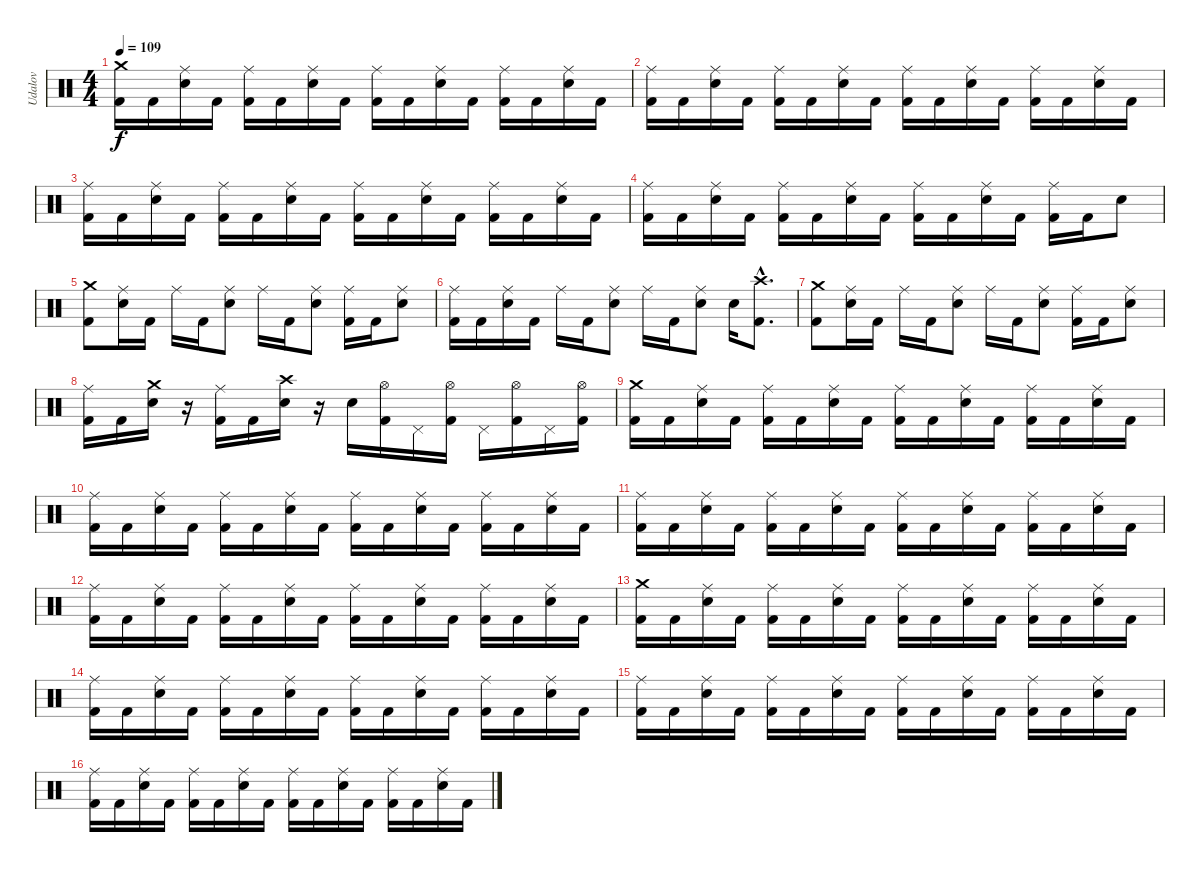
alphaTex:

\track ("Udalov" "Udalov") {instrument percussion}
\staff {score}
\articulation defaults
\ts (4 4)
\tempo 109
\clef neutral
\ks c
("Kick (hit) 2" "Crash medium (hit)").16{dy f} "Kick (hit) 2".16 ("Ride (middle)" "Snare (hit) 2").16 "Kick (hit) 2".16 ("Ride (middle)" "Kick (hit) 2").16 "Kick (hit) 2".16 ("Ride (middle)" "Snare (hit) 2").16 "Kick (hit) 2".16 ("Ride (middle)" "Kick (hit) 2").16 "Kick (hit) 2".16 ("Ride (middle)" "Snare (hit) 2").16 "Kick (hit) 2".16 ("Ride (middle)" "Kick (hit) 2").16 "Kick (hit) 2".16 ("Ride (middle)" "Snare (hit) 2").16 "Kick (hit) 2".16 |
("Kick (hit) 2" "Ride (middle)").16 "Kick (hit) 2".16 ("Snare (hit) 2" "Ride (middle)").16 "Kick (hit) 2".16 ("Kick (hit) 2" "Ride (middle)").16 "Kick (hit) 2".16 ("Snare (hit) 2" "Ride (middle)").16 "Kick (hit) 2".16 ("Kick (hit) 2" "Ride (middle)").16 "Kick (hit) 2".16 ("Snare (hit) 2" "Ride (middle)").16 "Kick (hit) 2".16 ("Kick (hit) 2" "Ride (middle)").16 "Kick (hit) 2".16 ("Snare (hit) 2" "Ride (middle)").16 "Kick (hit) 2".16 |
("Kick (hit) 2" "Ride (middle)").16 "Kick (hit) 2".16 ("Ride (middle)" "Snare (hit) 2").16 "Kick (hit) 2".16 ("Ride (middle)" "Kick (hit) 2").16 "Kick (hit) 2".16 ("Ride (middle)" "Snare (hit) 2").16 "Kick (hit) 2".16 ("Ride (middle)" "Kick (hit) 2").16 "Kick (hit) 2".16 ("Ride (middle)" "Snare (hit) 2").16 "Kick (hit) 2".16 ("Ride (middle)" "Kick (hit) 2").16 "Kick (hit) 2".16 ("Ride (middle)" "Snare (hit) 2").16 "Kick (hit) 2".16 |
("Kick (hit) 2" "Ride (middle)").16 "Kick (hit) 2".16 ("Snare (hit) 2" "Ride (middle)").16 "Kick (hit) 2".16 ("Kick (hit) 2" "Ride (middle)").16 "Kick (hit) 2".16 ("Snare (hit) 2" "Ride (middle)").16 "Kick (hit) 2".16 ("Kick (hit) 2" "Ride (middle)").16 "Kick (hit) 2".16 ("Snare (hit) 2" "Ride (middle)").16 "Kick (hit) 2".16 ("Ride (middle)" "Kick (hit) 2").16 "Kick (hit) 2".16 "Snare (hit) 2".8 |
("Kick (hit) 2" "Crash medium (hit)").8 ("Ride (middle)" "Snare (hit) 2").16 "Kick (hit) 2".16 "Ride (middle)".16 "Kick (hit) 2".16 ("Ride (middle)" "Snare (hit) 2").8 "Ride (middle)".16 "Kick (hit) 2".16 ("Ride (middle)" "Snare (hit) 2").8 ("Ride (middle)" "Kick (hit) 2").16 "Kick (hit) 2".16 ("Ride (middle)" "Snare (hit) 2").8 |
("Kick (hit) 2" "Ride (middle)").16 "Kick (hit) 2".16 ("Ride (middle)" "Snare (hit) 2").16 "Kick (hit) 2".16 "Ride (middle)".16 "Kick (hit) 2".16 ("Ride (middle)" "Snare (hit) 2").8 "Ride (middle)".16 "Kick (hit) 2".16 ("Ride (middle)" "Snare (hit) 2").8 "Snare (hit) 2".16 ("Kick (hit) 2"{hac} "Crash high (hit)"{hac}).8{d} |
("Kick (hit) 2" "Crash medium (hit)").8 ("Ride (middle)" "Snare (hit) 2").16 "Kick (hit) 2".16 "Ride (middle)".16 "Kick (hit) 2".16 ("Ride (middle)" "Snare (hit) 2").8 "Ride (middle)".16 "Kick (hit) 2".16 ("Ride (middle)" "Snare (hit) 2").8 ("Ride (middle)" "Kick (hit) 2").16 "Kick (hit) 2".16 ("Ride (middle)" "Snare (hit) 2").8 |
("Ride (middle)" "Kick (hit) 2").16 "Kick (hit) 2".16 ("Crash medium (hit)" "Snare (hit) 2").16 r.16 ("Ride (middle)" "Kick (hit) 2").16 "Kick (hit) 2".16 ("Crash high (hit)" "Snare (hit) 2").16 r.16 "Snare (hit) 2".16 ("Hi-Hat (open)" "Kick (hit) 2").16 "Pedal Hi-Hat (hit)".16 ("Hi-Hat (open)" "Kick (hit) 2").16 "Pedal Hi-Hat (hit)".16 ("Hi-Hat (open)" "Kick (hit) 2").16 "Pedal Hi-Hat (hit)".16 ("Hi-Hat (open)" "Kick (hit) 2").16 |
("Kick (hit) 2" "Crash medium (hit)").16 "Kick (hit) 2".16 ("Ride (middle)" "Snare (hit) 2").16 "Kick (hit) 2".16 ("Ride (middle)" "Kick (hit) 2").16 "Kick (hit) 2".16 ("Ride (middle)" "Snare (hit) 2").16 "Kick (hit) 2".16 ("Ride (middle)" "Kick (hit) 2").16 "Kick (hit) 2".16 ("Ride (middle)" "Snare (hit) 2").16 "Kick (hit) 2".16 ("Ride (middle)" "Kick (hit) 2").16 "Kick (hit) 2".16 ("Ride (middle)" "Snare (hit) 2").16 "Kick (hit) 2".16 |
("Ride (middle)" "Kick (hit) 2").16 "Kick (hit) 2".16 ("Ride (middle)" "Snare (hit) 2").16 "Kick (hit) 2".16 ("Ride (middle)" "Kick (hit) 2").16 "Kick (hit) 2".16 ("Ride (middle)" "Snare (hit) 2").16 "Kick (hit) 2".16 ("Ride (middle)" "Kick (hit) 2").16 "Kick (hit) 2".16 ("Ride (middle)" "Snare (hit) 2").16 "Kick (hit) 2".16 ("Ride (middle)" "Kick (hit) 2").16 "Kick (hit) 2".16 ("Ride (middle)" "Snare (hit) 2").16 "Kick (hit) 2".16 |
("Ride (middle)" "Kick (hit) 2").16 "Kick (hit) 2".16 ("Ride (middle)" "Snare (hit) 2").16 "Kick (hit) 2".16 ("Ride (middle)" "Kick (hit) 2").16 "Kick (hit) 2".16 ("Ride (middle)" "Snare (hit) 2").16 "Kick (hit) 2".16 ("Ride (middle)" "Kick (hit) 2").16 "Kick (hit) 2".16 ("Ride (middle)" "Snare (hit) 2").16 "Kick (hit) 2".16 ("Ride (middle)" "Kick (hit) 2").16 "Kick (hit) 2".16 ("Ride (middle)" "Snare (hit) 2").16 "Kick (hit) 2".16 |
("Ride (middle)" "Kick (hit) 2").16 "Kick (hit) 2".16 ("Ride (middle)" "Snare (hit) 2").16 "Kick (hit) 2".16 ("Ride (middle)" "Kick (hit) 2").16 "Kick (hit) 2".16 ("Ride (middle)" "Snare (hit) 2").16 "Kick (hit) 2".16 ("Ride (middle)" "Kick (hit) 2").16 "Kick (hit) 2".16 ("Ride (middle)" "Snare (hit) 2").16 "Kick (hit) 2".16 ("Ride (middle)" "Kick (hit) 2").16 "Kick (hit) 2".16 ("Ride (middle)" "Snare (hit) 2").16 "Kick (hit) 2".16 |
("Kick (hit) 2" "Crash medium (hit)").16 "Kick (hit) 2".16 ("Ride (middle)" "Snare (hit) 2").16 "Kick (hit) 2".16 ("Ride (middle)" "Kick (hit) 2").16 "Kick (hit) 2".16 ("Ride (middle)" "Snare (hit) 2").16 "Kick (hit) 2".16 ("Ride (middle)" "Kick (hit) 2").16 "Kick (hit) 2".16 ("Ride (middle)" "Snare (hit) 2").16 "Kick (hit) 2".16 ("Ride (middle)" "Kick (hit) 2").16 "Kick (hit) 2".16 ("Ride (middle)" "Snare (hit) 2").16 "Kick (hit) 2".16 |
("Ride (middle)" "Kick (hit) 2").16 "Kick (hit) 2".16 ("Ride (middle)" "Snare (hit) 2").16 "Kick (hit) 2".16 ("Ride (middle)" "Kick (hit) 2").16 "Kick (hit) 2".16 ("Ride (middle)" "Snare (hit) 2").16 "Kick (hit) 2".16 ("Ride (middle)" "Kick (hit) 2").16 "Kick (hit) 2".16 ("Ride (middle)" "Snare (hit) 2").16 "Kick (hit) 2".16 ("Ride (middle)" "Kick (hit) 2").16 "Kick (hit) 2".16 ("Ride (middle)" "Snare (hit) 2").16 "Kick (hit) 2".16 |
("Ride (middle)" "Kick (hit) 2").16 "Kick (hit) 2".16 ("Ride (middle)" "Snare (hit) 2").16 "Kick (hit) 2".16 ("Ride (middle)" "Kick (hit) 2").16 "Kick (hit) 2".16 ("Ride (middle)" "Snare (hit) 2").16 "Kick (hit) 2".16 ("Ride (middle)" "Kick (hit) 2").16 "Kick (hit) 2".16 ("Ride (middle)" "Snare (hit) 2").16 "Kick (hit) 2".16 ("Ride (middle)" "Kick (hit) 2").16 "Kick (hit) 2".16 ("Ride (middle)" "Snare (hit) 2").16 "Kick (hit) 2".16 |
("Ride (middle)" "Kick (hit) 2").16 "Kick (hit) 2".16 ("Ride (middle)" "Snare (hit) 2").16 "Kick (hit) 2".16 ("Ride (middle)" "Kick (hit) 2").16 "Kick (hit) 2".16 ("Ride (middle)" "Snare (hit) 2").16 "Kick (hit) 2".16 ("Ride (middle)" "Kick (hit) 2").16 "Kick (hit) 2".16 ("Ride (middle)" "Snare (hit) 2").16 "Kick (hit) 2".16 ("Ride (middle)" "Kick (hit) 2").16 "Kick (hit) 2".16 ("Ride (middle)" "Snare (hit) 2").16 "Kick (hit) 2".16
